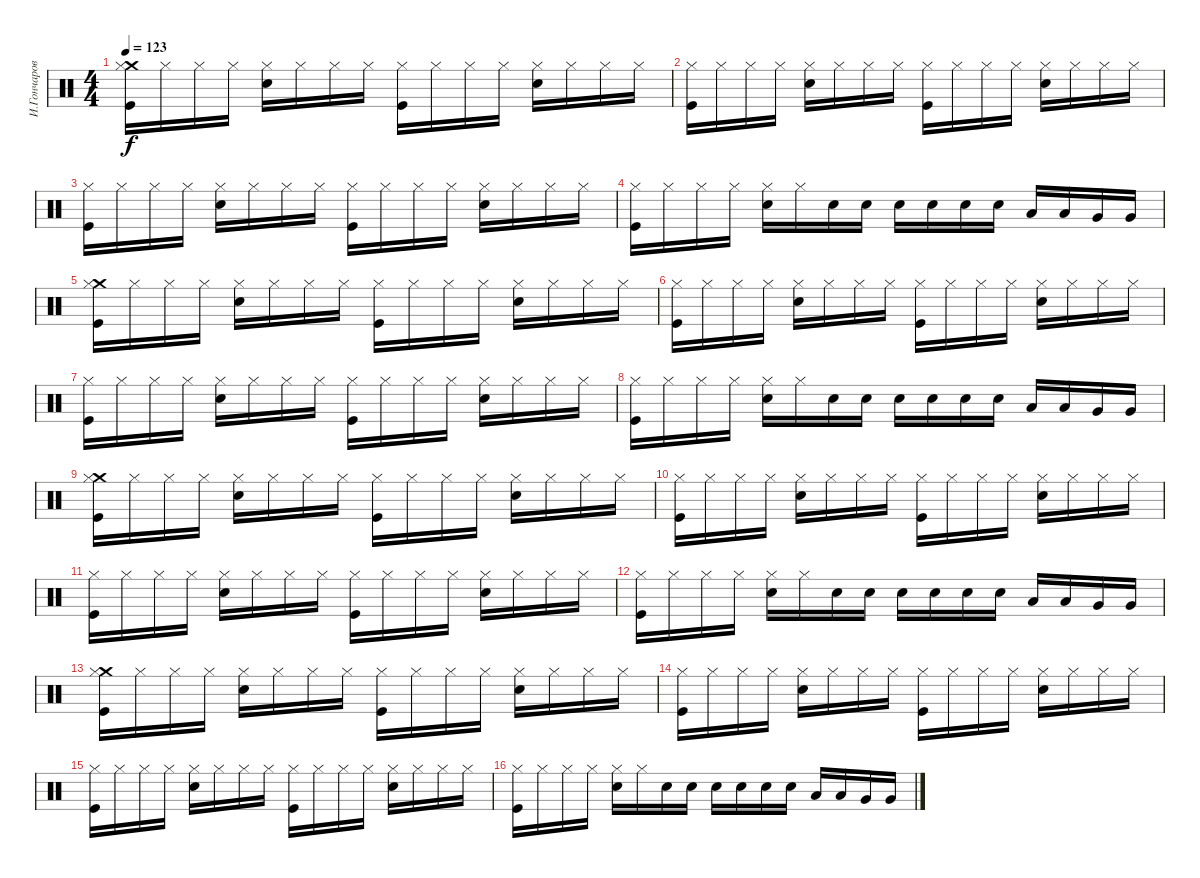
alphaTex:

\track ("И.Гончаров" "И.Гончаров") {instrument percussion}
\staff {score}
\articulation defaults
\ts (4 4)
\tempo 123
\clef neutral
\ks c
("Crash medium (hit)" "Hi-Hat (closed)" "Kick (hit)").16{dy f} "Hi-Hat (closed)".16 "Hi-Hat (closed)".16 "Hi-Hat (closed)".16 ("Hi-Hat (closed)" "Snare (hit) 2").16 "Hi-Hat (closed)".16 "Hi-Hat (closed)".16 "Hi-Hat (closed)".16 ("Hi-Hat (closed)" "Kick (hit)").16 "Hi-Hat (closed)".16 "Hi-Hat (closed)".16 "Hi-Hat (closed)".16 ("Hi-Hat (closed)" "Snare (hit) 2").16 "Hi-Hat (closed)".16 "Hi-Hat (closed)".16 "Hi-Hat (closed)".16 |
("Hi-Hat (closed)" "Kick (hit)").16 "Hi-Hat (closed)".16 "Hi-Hat (closed)".16 "Hi-Hat (closed)".16 ("Hi-Hat (closed)" "Snare (hit) 2").16 "Hi-Hat (closed)".16 "Hi-Hat (closed)".16 "Hi-Hat (closed)".16 ("Hi-Hat (closed)" "Kick (hit)").16 "Hi-Hat (closed)".16 "Hi-Hat (closed)".16 "Hi-Hat (closed)".16 ("Hi-Hat (closed)" "Snare (hit) 2").16 "Hi-Hat (closed)".16 "Hi-Hat (closed)".16 "Hi-Hat (closed)".16 |
("Hi-Hat (closed)" "Kick (hit)").16 "Hi-Hat (closed)".16 "Hi-Hat (closed)".16 "Hi-Hat (closed)".16 ("Hi-Hat (closed)" "Snare (hit) 2").16 "Hi-Hat (closed)".16 "Hi-Hat (closed)".16 "Hi-Hat (closed)".16 ("Hi-Hat (closed)" "Kick (hit)").16 "Hi-Hat (closed)".16 "Hi-Hat (closed)".16 "Hi-Hat (closed)".16 ("Hi-Hat (closed)" "Snare (hit) 2").16 "Hi-Hat (closed)".16 "Hi-Hat (closed)".16 "Hi-Hat (closed)".16 |
("Hi-Hat (closed)" "Kick (hit)").16 "Hi-Hat (closed)".16 "Hi-Hat (closed)".16 "Hi-Hat (closed)".16 ("Hi-Hat (closed)" "Snare (hit) 2").16 "Hi-Hat (closed)".16 "Snare (hit) 2".16 "Snare (hit) 2".16 "Snare (hit) 2".16 "Snare (hit) 2".16 "Snare (hit) 2".16 "Snare (hit) 2".16 "Low Tom (hit)".16 "Low Tom (hit)".16 "Very Low Tom (hit)".16 "Very Low Tom (hit)".16 |
("Crash medium (hit)" "Hi-Hat (closed)" "Kick (hit)").16 "Hi-Hat (closed)".16 "Hi-Hat (closed)".16 "Hi-Hat (closed)".16 ("Hi-Hat (closed)" "Snare (hit) 2").16 "Hi-Hat (closed)".16 "Hi-Hat (closed)".16 "Hi-Hat (closed)".16 ("Hi-Hat (closed)" "Kick (hit)").16 "Hi-Hat (closed)".16 "Hi-Hat (closed)".16 "Hi-Hat (closed)".16 ("Hi-Hat (closed)" "Snare (hit) 2").16 "Hi-Hat (closed)".16 "Hi-Hat (closed)".16 "Hi-Hat (closed)".16 |
("Hi-Hat (closed)" "Kick (hit)").16 "Hi-Hat (closed)".16 "Hi-Hat (closed)".16 "Hi-Hat (closed)".16 ("Hi-Hat (closed)" "Snare (hit) 2").16 "Hi-Hat (closed)".16 "Hi-Hat (closed)".16 "Hi-Hat (closed)".16 ("Hi-Hat (closed)" "Kick (hit)").16 "Hi-Hat (closed)".16 "Hi-Hat (closed)".16 "Hi-Hat (closed)".16 ("Hi-Hat (closed)" "Snare (hit) 2").16 "Hi-Hat (closed)".16 "Hi-Hat (closed)".16 "Hi-Hat (closed)".16 |
("Hi-Hat (closed)" "Kick (hit)").16 "Hi-Hat (closed)".16 "Hi-Hat (closed)".16 "Hi-Hat (closed)".16 ("Hi-Hat (closed)" "Snare (hit) 2").16 "Hi-Hat (closed)".16 "Hi-Hat (closed)".16 "Hi-Hat (closed)".16 ("Hi-Hat (closed)" "Kick (hit)").16 "Hi-Hat (closed)".16 "Hi-Hat (closed)".16 "Hi-Hat (closed)".16 ("Hi-Hat (closed)" "Snare (hit) 2").16 "Hi-Hat (closed)".16 "Hi-Hat (closed)".16 "Hi-Hat (closed)".16 |
("Hi-Hat (closed)" "Kick (hit)").16 "Hi-Hat (closed)".16 "Hi-Hat (closed)".16 "Hi-Hat (closed)".16 ("Hi-Hat (closed)" "Snare (hit) 2").16 "Hi-Hat (closed)".16 "Snare (hit) 2".16 "Snare (hit) 2".16 "Snare (hit) 2".16 "Snare (hit) 2".16 "Snare (hit) 2".16 "Snare (hit) 2".16 "Low Tom (hit)".16 "Low Tom (hit)".16 "Very Low Tom (hit)".16 "Very Low Tom (hit)".16 |
("Crash medium (hit)" "Hi-Hat (closed)" "Kick (hit)").16 "Hi-Hat (closed)".16 "Hi-Hat (closed)".16 "Hi-Hat (closed)".16 ("Hi-Hat (closed)" "Snare (hit) 2").16 "Hi-Hat (closed)".16 "Hi-Hat (closed)".16 "Hi-Hat (closed)".16 ("Hi-Hat (closed)" "Kick (hit)").16 "Hi-Hat (closed)".16 "Hi-Hat (closed)".16 "Hi-Hat (closed)".16 ("Hi-Hat (closed)" "Snare (hit) 2").16 "Hi-Hat (closed)".16 "Hi-Hat (closed)".16 "Hi-Hat (closed)".16 |
("Hi-Hat (closed)" "Kick (hit)").16 "Hi-Hat (closed)".16 "Hi-Hat (closed)".16 "Hi-Hat (closed)".16 ("Hi-Hat (closed)" "Snare (hit) 2").16 "Hi-Hat (closed)".16 "Hi-Hat (closed)".16 "Hi-Hat (closed)".16 ("Hi-Hat (closed)" "Kick (hit)").16 "Hi-Hat (closed)".16 "Hi-Hat (closed)".16 "Hi-Hat (closed)".16 ("Hi-Hat (closed)" "Snare (hit) 2").16 "Hi-Hat (closed)".16 "Hi-Hat (closed)".16 "Hi-Hat (closed)".16 |
("Hi-Hat (closed)" "Kick (hit)").16 "Hi-Hat (closed)".16 "Hi-Hat (closed)".16 "Hi-Hat (closed)".16 ("Hi-Hat (closed)" "Snare (hit) 2").16 "Hi-Hat (closed)".16 "Hi-Hat (closed)".16 "Hi-Hat (closed)".16 ("Hi-Hat (closed)" "Kick (hit)").16 "Hi-Hat (closed)".16 "Hi-Hat (closed)".16 "Hi-Hat (closed)".16 ("Hi-Hat (closed)" "Snare (hit) 2").16 "Hi-Hat (closed)".16 "Hi-Hat (closed)".16 "Hi-Hat (closed)".16 |
("Hi-Hat (closed)" "Kick (hit)").16 "Hi-Hat (closed)".16 "Hi-Hat (closed)".16 "Hi-Hat (closed)".16 ("Hi-Hat (closed)" "Snare (hit) 2").16 "Hi-Hat (closed)".16 "Snare (hit) 2".16 "Snare (hit) 2".16 "Snare (hit) 2".16 "Snare (hit) 2".16 "Snare (hit) 2".16 "Snare (hit) 2".16 "Low Tom (hit)".16 "Low Tom (hit)".16 "Very Low Tom (hit)".16 "Very Low Tom (hit)".16 |
("Crash medium (hit)" "Hi-Hat (closed)" "Kick (hit)").16 "Hi-Hat (closed)".16 "Hi-Hat (closed)".16 "Hi-Hat (closed)".16 ("Hi-Hat (closed)" "Snare (hit) 2").16 "Hi-Hat (closed)".16 "Hi-Hat (closed)".16 "Hi-Hat (closed)".16 ("Hi-Hat (closed)" "Kick (hit)").16 "Hi-Hat (closed)".16 "Hi-Hat (closed)".16 "Hi-Hat (closed)".16 ("Hi-Hat (closed)" "Snare (hit) 2").16 "Hi-Hat (closed)".16 "Hi-Hat (closed)".16 "Hi-Hat (closed)".16 |
("Hi-Hat (closed)" "Kick (hit)").16 "Hi-Hat (closed)".16 "Hi-Hat (closed)".16 "Hi-Hat (closed)".16 ("Hi-Hat (closed)" "Snare (hit) 2").16 "Hi-Hat (closed)".16 "Hi-Hat (closed)".16 "Hi-Hat (closed)".16 ("Hi-Hat (closed)" "Kick (hit)").16 "Hi-Hat (closed)".16 "Hi-Hat (closed)".16 "Hi-Hat (closed)".16 ("Hi-Hat (closed)" "Snare (hit) 2").16 "Hi-Hat (closed)".16 "Hi-Hat (closed)".16 "Hi-Hat (closed)".16 |
("Hi-Hat (closed)" "Kick (hit)").16 "Hi-Hat (closed)".16 "Hi-Hat (closed)".16 "Hi-Hat (closed)".16 ("Hi-Hat (closed)" "Snare (hit) 2").16 "Hi-Hat (closed)".16 "Hi-Hat (closed)".16 "Hi-Hat (closed)".16 ("Hi-Hat (closed)" "Kick (hit)").16 "Hi-Hat (closed)".16 "Hi-Hat (closed)".16 "Hi-Hat (closed)".16 ("Hi-Hat (closed)" "Snare (hit) 2").16 "Hi-Hat (closed)".16 "Hi-Hat (closed)".16 "Hi-Hat (closed)".16 |
("Hi-Hat (closed)" "Kick (hit)").16 "Hi-Hat (closed)".16 "Hi-Hat (closed)".16 "Hi-Hat (closed)".16 ("Hi-Hat (closed)" "Snare (hit) 2").16 "Hi-Hat (closed)".16 "Snare (hit) 2".16 "Snare (hit) 2".16 "Snare (hit) 2".16 "Snare (hit) 2".16 "Snare (hit) 2".16 "Snare (hit) 2".16 "Low Tom (hit)".16 "Low Tom (hit)".16 "Very Low Tom (hit)".16 "Very Low Tom (hit)".16
